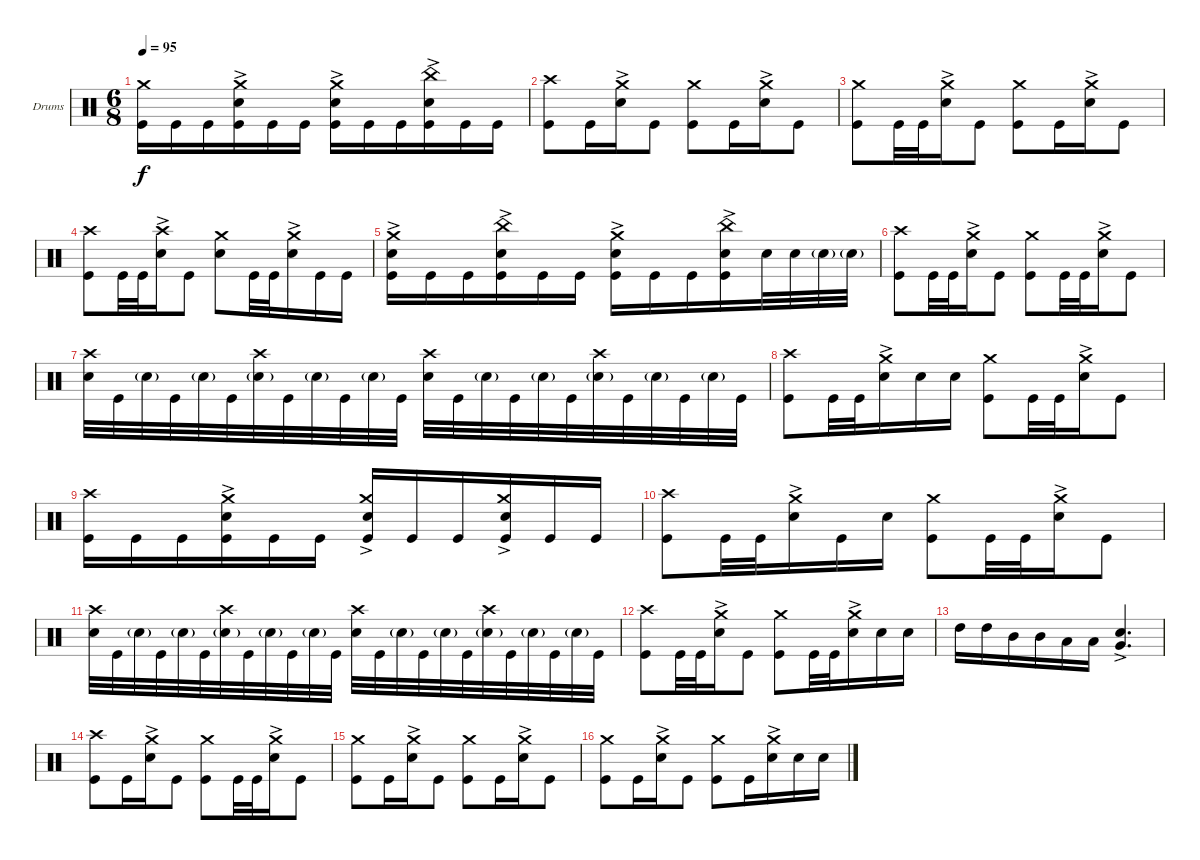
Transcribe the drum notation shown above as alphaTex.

\bracketExtendMode groupsimilarinstruments
\firstSystemTrackNameOrientation horizontal
\otherSystemsTrackNameOrientation horizontal
\track ("Drumkit" "Drums") {instrument percussion}
\staff {score}
\articulation defaults
\ts (6 8)
\tempo 95
\clef neutral
\ks c
("Kick (hit)" "Crash medium (hit)").16{dy f} "Kick (hit)".16 "Kick (hit)".16 ("Snare (hit) 2"{ac} "Kick (hit)" "Crash medium (hit)").16 "Kick (hit)".16 "Kick (hit)".16 ("Kick (hit)" "Snare (hit) 2"{ac} "Crash medium (hit)").16 "Kick (hit)".16 "Kick (hit)".16 ("Kick (hit)" "Snare (hit) 2"{ac} "China (hit)").16 "Kick (hit)".16 "Kick (hit)".16 |
("Kick (hit)" "Crash high (hit)").8 "Kick (hit)".16 ("Snare (hit) 2"{ac} "Crash medium (hit)").16 "Kick (hit)".8 ("Kick (hit)" "Crash medium (hit)").8 "Kick (hit)".16 ("Snare (hit) 2"{ac} "Crash medium (hit)").16 "Kick (hit)".8 |
("Kick (hit)" "Crash medium (hit)").8 "Kick (hit)".32 "Kick (hit)".32 ("Snare (hit) 2"{ac} "Crash medium (hit)").16 "Kick (hit)".8 ("Kick (hit)" "Crash medium (hit)").8 "Kick (hit)".16 ("Snare (hit) 2"{ac} "Crash medium (hit)").16 "Kick (hit)".8 |
("Kick (hit)" "Crash high (hit)").8 "Kick (hit)".32 "Kick (hit)".32 ("Snare (hit) 2"{ac} "Crash high (hit)").16 "Kick (hit)".8 ("Snare (hit) 2" "Crash medium (hit)").8 "Kick (hit)".32 "Kick (hit)".32 ("Snare (hit) 2"{ac} "Crash medium (hit)").16 "Kick (hit)".16 "Kick (hit)".16 |
("Kick (hit)" "Snare (hit) 2"{ac} "Crash medium (hit)").16 "Kick (hit)".16 "Kick (hit)".16 ("Kick (hit)" "Snare (hit) 2"{ac} "China (hit)").16 "Kick (hit)".16 "Kick (hit)".16 ("Kick (hit)" "Snare (hit) 2"{ac} "Crash medium (hit)").16 "Kick (hit)".16 "Kick (hit)".16 ("Kick (hit)" "Snare (hit) 2"{ac} "China (hit)").16 "Snare (hit) 2".32 "Snare (hit) 2".32 "Snare (hit) 2"{g}.32 "Snare (hit) 2"{g}.32 |
("Kick (hit)" "Crash high (hit)").8 "Kick (hit)".32 "Kick (hit)".32 ("Snare (hit) 2"{ac} "Crash medium (hit)").16 "Kick (hit)".8 ("Kick (hit)" "Crash medium (hit)").8 "Kick (hit)".32 "Kick (hit)".32 ("Snare (hit) 2"{ac} "Crash medium (hit)").16 "Kick (hit)".8 |
("Snare (hit) 2" "Crash high (hit)").32 "Kick (hit)".32 "Snare (hit) 2"{g}.32 "Kick (hit)".32 "Snare (hit) 2"{g}.32 "Kick (hit)".32 ("Snare (hit) 2"{g} "Crash high (hit)").32 "Kick (hit)".32 "Snare (hit) 2"{g}.32 "Kick (hit)".32 "Snare (hit) 2"{g}.32 "Kick (hit)".32 ("Snare (hit) 2" "Crash high (hit)").32 "Kick (hit)".32 "Snare (hit) 2"{g}.32 "Kick (hit)".32 "Snare (hit) 2"{g}.32 "Kick (hit)".32 ("Snare (hit) 2"{g} "Crash high (hit)").32 "Kick (hit)".32 "Snare (hit) 2"{g}.32 "Kick (hit)".32 "Snare (hit) 2"{g}.32 "Kick (hit)".32 |
("Kick (hit)" "Crash high (hit)").8 "Kick (hit)".32 "Kick (hit)".32 ("Snare (hit) 2"{ac} "Crash medium (hit)").16 "Snare (hit) 2".16 "Snare (hit) 2".16 ("Kick (hit)" "Crash medium (hit)").8 "Kick (hit)".32 "Kick (hit)".32 ("Snare (hit) 2"{ac} "Crash medium (hit)").16 "Kick (hit)".8 |
("Kick (hit)" "Crash high (hit)").16 "Kick (hit)".16 "Kick (hit)".16 ("Kick (hit)" "Snare (hit) 2"{ac} "Crash medium (hit)").16 "Kick (hit)".16 "Kick (hit)".16 ("Kick (hit)" "Snare (hit) 2"{ac} "Crash medium (hit)").16 "Kick (hit)".16 "Kick (hit)".16 ("Kick (hit)" "Snare (hit) 2"{ac} "Crash medium (hit)").16 "Kick (hit)".16 "Kick (hit)".16 |
("Kick (hit)" "Crash high (hit)").8 "Kick (hit)".32 "Kick (hit)".32 ("Snare (hit) 2"{ac} "Crash medium (hit)").16 "Kick (hit)".16 "Snare (hit) 2".16 ("Kick (hit)" "Crash medium (hit)").8 "Kick (hit)".32 "Kick (hit)".32 ("Snare (hit) 2"{ac} "Crash medium (hit)").16 "Kick (hit)".8 |
("Snare (hit) 2" "Crash high (hit)").32 "Kick (hit)".32 "Snare (hit) 2"{g}.32 "Kick (hit)".32 "Snare (hit) 2"{g}.32 "Kick (hit)".32 ("Snare (hit) 2"{g} "Crash high (hit)").32 "Kick (hit)".32 "Snare (hit) 2"{g}.32 "Kick (hit)".32 "Snare (hit) 2"{g}.32 "Kick (hit)".32 ("Snare (hit) 2" "Crash high (hit)").32 "Kick (hit)".32 "Snare (hit) 2"{g}.32 "Kick (hit)".32 "Snare (hit) 2"{g}.32 "Kick (hit)".32 ("Snare (hit) 2"{g} "Crash high (hit)").32 "Kick (hit)".32 "Snare (hit) 2"{g}.32 "Kick (hit)".32 "Snare (hit) 2"{g}.32 "Kick (hit)".32 |
("Kick (hit)" "Crash high (hit)").8 "Kick (hit)".32 "Kick (hit)".32 ("Snare (hit) 2"{ac} "Crash medium (hit)").16 "Kick (hit)".8 ("Kick (hit)" "Crash medium (hit)").8 "Kick (hit)".32 "Kick (hit)".32 ("Snare (hit) 2"{ac} "Crash medium (hit)").16 "Snare (hit) 2".16 "Snare (hit) 2".16 |
"High Tom (hit)".16 "High Tom (hit)".16 "Mid Tom (hit)".16 "Mid Tom (hit)".16 "Low Tom (hit)".16 "Low Tom (hit)".16 ("Very Low Tom (hit)" "Snare (hit) 2"{ac}).4{d} |
("Kick (hit)" "Crash high (hit)").8 "Kick (hit)".16 ("Snare (hit) 2"{ac} "Crash medium (hit)").16 "Kick (hit)".8 ("Kick (hit)" "Crash medium (hit)").8 "Kick (hit)".32 "Kick (hit)".32 ("Snare (hit) 2"{ac} "Crash medium (hit)").16 "Kick (hit)".8 |
("Kick (hit)" "Crash medium (hit)").8 "Kick (hit)".16 ("Snare (hit) 2"{ac} "Crash medium (hit)").16 "Kick (hit)".8 ("Kick (hit)" "Crash medium (hit)").8 "Kick (hit)".16 ("Snare (hit) 2"{ac} "Crash medium (hit)").16 "Kick (hit)".8 |
("Kick (hit)" "Crash medium (hit)").8 "Kick (hit)".16 ("Snare (hit) 2"{ac} "Crash medium (hit)").16 "Kick (hit)".8 ("Kick (hit)" "Crash medium (hit)").8 "Kick (hit)".16 ("Snare (hit) 2"{ac} "Crash medium (hit)").16 "Snare (hit) 2".16 "Snare (hit) 2".16
